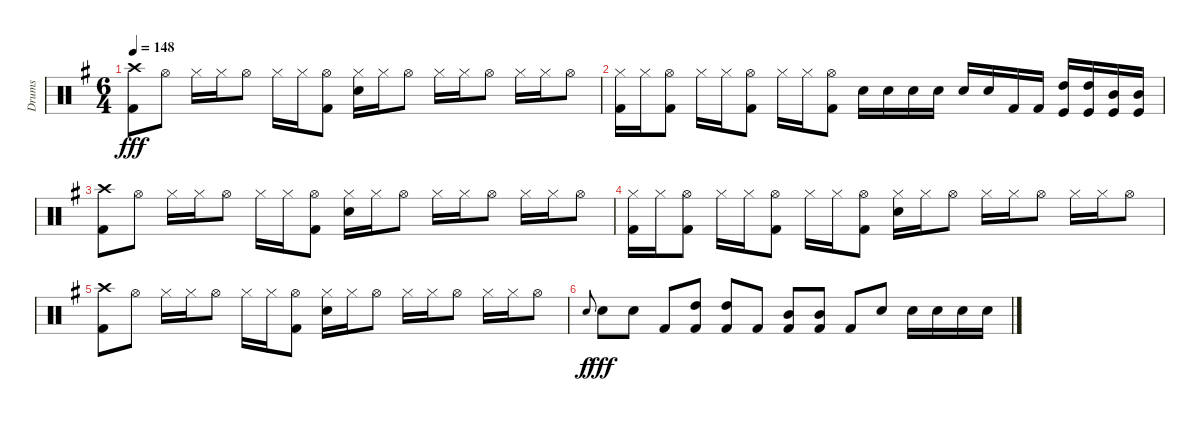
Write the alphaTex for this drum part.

\track ("Drums" "Drums") {instrument percussion}
\staff {score}
\articulation defaults
\ts (6 4)
\tempo 148
\clef neutral
\ks g
("Crash high (hit)" "Kick (hit) 2").8{dy fff} "Hi-Hat (open)".8 "Hi-Hat (closed)".16 "Hi-Hat (closed)".16 "Hi-Hat (open)".8 "Hi-Hat (closed)".16 "Hi-Hat (closed)".16 ("Hi-Hat (open)" "Kick (hit) 2").8 ("Hi-Hat (closed)" "Electric Snare (hit)").16 "Hi-Hat (closed)".16 "Hi-Hat (open)".8 "Hi-Hat (closed)".16 "Hi-Hat (closed)".16 "Hi-Hat (open)".8 "Hi-Hat (closed)".16 "Hi-Hat (closed)".16 "Hi-Hat (open)".8 |
("Hi-Hat (closed)" "Kick (hit) 2").16 "Hi-Hat (closed)".16 ("Hi-Hat (open)" "Kick (hit) 2").8 "Hi-Hat (closed)".16 "Hi-Hat (closed)".16 ("Hi-Hat (open)" "Kick (hit) 2").8 "Hi-Hat (closed)".16 "Hi-Hat (closed)".16 ("Hi-Hat (open)" "Kick (hit) 2").8 "Electric Snare (hit)".16 "Electric Snare (hit)".16 "Electric Snare (hit)".16 "Electric Snare (hit)".16 "Electric Snare (hit)".16 "Electric Snare (hit)".16 "Kick (hit) 2".16 "Kick (hit) 2".16 ("High Tom (hit)" "Kick (hit)").16 ("High Tom (hit)" "Kick (hit)").16 ("Mid Tom (hit)" "Kick (hit)").16 ("Mid Tom (hit)" "Kick (hit)").16 |
("Crash high (hit)" "Kick (hit) 2").8 "Hi-Hat (open)".8 "Hi-Hat (closed)".16 "Hi-Hat (closed)".16 "Hi-Hat (open)".8 "Hi-Hat (closed)".16 "Hi-Hat (closed)".16 ("Hi-Hat (open)" "Kick (hit) 2").8 ("Hi-Hat (closed)" "Electric Snare (hit)").16 "Hi-Hat (closed)".16 "Hi-Hat (open)".8 "Hi-Hat (closed)".16 "Hi-Hat (closed)".16 "Hi-Hat (open)".8 "Hi-Hat (closed)".16 "Hi-Hat (closed)".16 "Hi-Hat (open)".8 |
("Hi-Hat (closed)" "Kick (hit) 2").16 "Hi-Hat (closed)".16 ("Hi-Hat (open)" "Kick (hit) 2").8 "Hi-Hat (closed)".16 "Hi-Hat (closed)".16 ("Hi-Hat (open)" "Kick (hit) 2").8 "Hi-Hat (closed)".16 "Hi-Hat (closed)".16 ("Hi-Hat (open)" "Kick (hit) 2").8 ("Hi-Hat (closed)" "Electric Snare (hit)").16 "Hi-Hat (closed)".16 "Hi-Hat (open)".8 "Hi-Hat (closed)".16 "Hi-Hat (closed)".16 "Hi-Hat (open)".8 "Hi-Hat (closed)".16 "Hi-Hat (closed)".16 "Hi-Hat (open)".8 |
("Crash high (hit)" "Kick (hit) 2").8 "Hi-Hat (open)".8 "Hi-Hat (closed)".16 "Hi-Hat (closed)".16 "Hi-Hat (open)".8 "Hi-Hat (closed)".16 "Hi-Hat (closed)".16 ("Hi-Hat (open)" "Kick (hit) 2").8 ("Hi-Hat (closed)" "Electric Snare (hit)").16 "Hi-Hat (closed)".16 "Hi-Hat (open)".8 "Hi-Hat (closed)".16 "Hi-Hat (closed)".16 "Hi-Hat (open)".8 "Hi-Hat (closed)".16 "Hi-Hat (closed)".16 "Hi-Hat (open)".8 |
"Electric Snare (hit)".8{gr onbeat dy f} "Electric Snare (hit)".8{dy fff} "Electric Snare (hit)".8 "Kick (hit) 2".8 ("High Tom (hit)" "Kick (hit) 2").8 ("High Tom (hit)" "Kick (hit) 2").8 "Kick (hit) 2".8 ("Mid Tom (hit)" "Kick (hit) 2").8 ("Mid Tom (hit)" "Kick (hit) 2").8 "Kick (hit) 2".8 "Electric Snare (hit)".8 "Electric Snare (hit)".16 "Electric Snare (hit)".16 "Electric Snare (hit)".16 "Electric Snare (hit)".16
